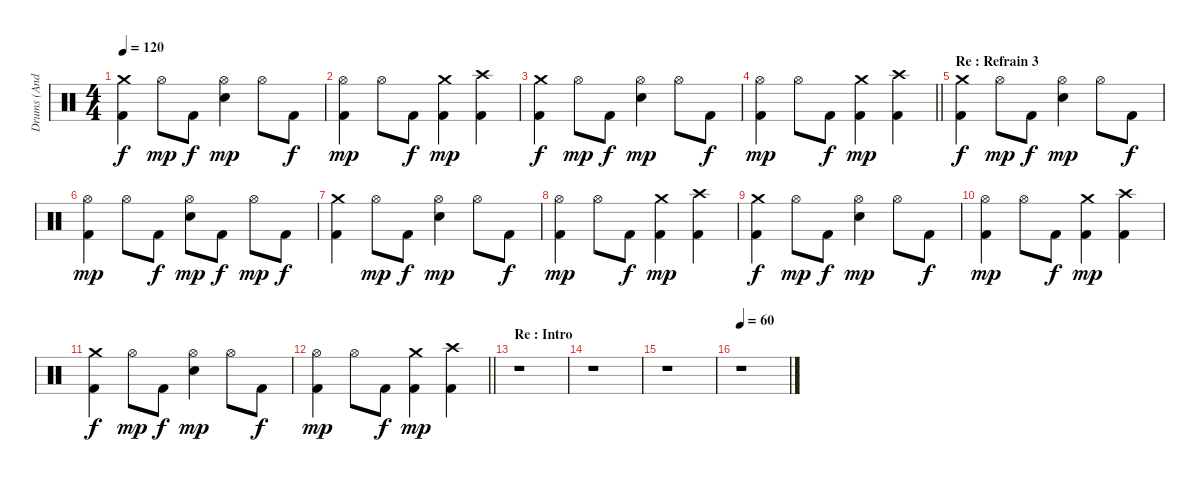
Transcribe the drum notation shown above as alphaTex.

\track ("Drums (Andy C)" "Drums (And") {instrument percussion}
\staff
\articulation defaults
\ts (4 4)
\tempo 120
\clef neutral
\ks c
("Crash medium (hit)" "Kick (hit) 2").4{dy f} "Hi-Hat (open)".8{dy mp} "Kick (hit) 2".8{dy f} ("Hi-Hat (open)" "Electric Snare (hit)").4{dy mp} "Hi-Hat (open)".8 "Kick (hit) 2".8{dy f} |
("Hi-Hat (open)" "Kick (hit) 2").4{dy mp} "Hi-Hat (open)".8 "Kick (hit) 2".8{dy f} ("Crash medium (hit)" "Kick (hit) 2").4{dy mp} ("Crash high (hit)" "Kick (hit) 2").4 |
("Crash medium (hit)" "Kick (hit) 2").4{dy f} "Hi-Hat (open)".8{dy mp} "Kick (hit) 2".8{dy f} ("Hi-Hat (open)" "Electric Snare (hit)").4{dy mp} "Hi-Hat (open)".8 "Kick (hit) 2".8{dy f} |
\barLineRight lightlight
("Hi-Hat (open)" "Kick (hit) 2").4{dy mp} "Hi-Hat (open)".8 "Kick (hit) 2".8{dy f} ("Crash medium (hit)" "Kick (hit) 2").4{dy mp} ("Crash high (hit)" "Kick (hit) 2").4 |
\section ("" "Re : Refrain 3")
("Crash medium (hit)" "Kick (hit) 2").4{dy f} "Hi-Hat (open)".8{dy mp} "Kick (hit) 2".8{dy f} ("Hi-Hat (open)" "Electric Snare (hit)").4{dy mp} "Hi-Hat (open)".8 "Kick (hit) 2".8{dy f} |
("Hi-Hat (open)" "Kick (hit) 2").4{dy mp} "Hi-Hat (open)".8 "Kick (hit) 2".8{dy f} ("Hi-Hat (open)" "Electric Snare (hit)").8{dy mp} "Kick (hit) 2".8{dy f} "Hi-Hat (open)".8{dy mp} "Kick (hit) 2".8{dy f} |
("Crash medium (hit)" "Kick (hit) 2").4 "Hi-Hat (open)".8{dy mp} "Kick (hit) 2".8{dy f} ("Hi-Hat (open)" "Electric Snare (hit)").4{dy mp} "Hi-Hat (open)".8 "Kick (hit) 2".8{dy f} |
("Hi-Hat (open)" "Kick (hit) 2").4{dy mp} "Hi-Hat (open)".8 "Kick (hit) 2".8{dy f} ("Crash medium (hit)" "Kick (hit) 2").4{dy mp} ("Crash high (hit)" "Kick (hit) 2").4 |
("Crash medium (hit)" "Kick (hit) 2").4{dy f} "Hi-Hat (open)".8{dy mp} "Kick (hit) 2".8{dy f} ("Hi-Hat (open)" "Electric Snare (hit)").4{dy mp} "Hi-Hat (open)".8 "Kick (hit) 2".8{dy f} |
("Hi-Hat (open)" "Kick (hit) 2").4{dy mp} "Hi-Hat (open)".8 "Kick (hit) 2".8{dy f} ("Crash medium (hit)" "Kick (hit) 2").4{dy mp} ("Crash high (hit)" "Kick (hit) 2").4 |
("Crash medium (hit)" "Kick (hit) 2").4{dy f} "Hi-Hat (open)".8{dy mp} "Kick (hit) 2".8{dy f} ("Hi-Hat (open)" "Electric Snare (hit)").4{dy mp} "Hi-Hat (open)".8 "Kick (hit) 2".8{dy f} |
\barLineRight lightlight
("Hi-Hat (open)" "Kick (hit) 2").4{dy mp} "Hi-Hat (open)".8 "Kick (hit) 2".8{dy f} ("Crash medium (hit)" "Kick (hit) 2").4{dy mp} ("Crash high (hit)" "Kick (hit) 2").4 |
\section ("" "Re : Intro")
r.1 |
r.1 |
r.1 |
\tempo 60
r.1
